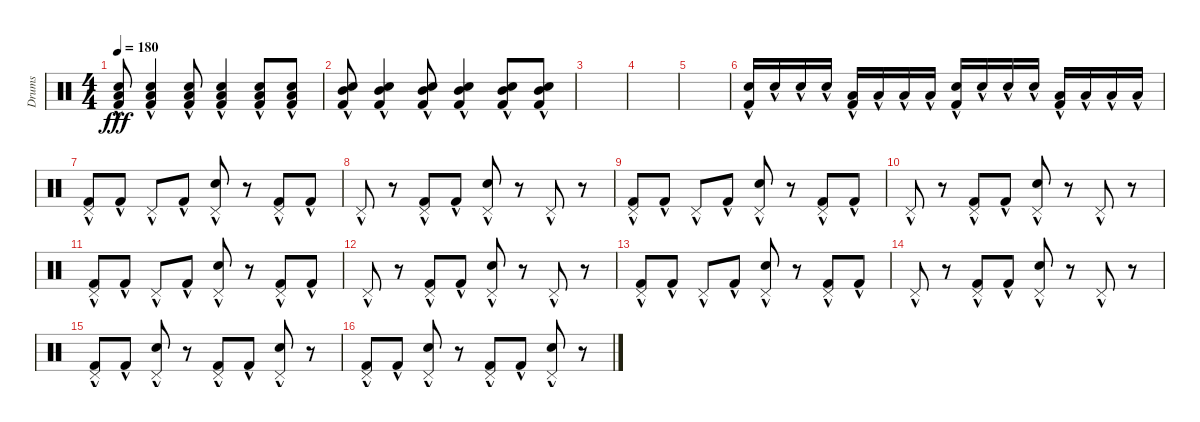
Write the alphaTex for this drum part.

\track ("Drums" "Drums") {instrument percussion}
\staff {score}
\articulation defaults
\ts (4 4)
\tempo 180
\clef neutral
\ks c
("Kick (hit) 2"{hac} "Snare (hit) 2"{hac} "Low Tom (hit)"{hac}).8{dy fff} ("Kick (hit) 2"{hac} "Snare (hit) 2"{hac} "Low Tom (hit)"{hac}).4 ("Kick (hit) 2"{hac} "Snare (hit) 2"{hac} "Low Tom (hit)"{hac}).8 ("Kick (hit) 2"{hac} "Snare (hit) 2"{hac} "Low Tom (hit)"{hac}).4 ("Kick (hit) 2"{hac} "Snare (hit) 2"{hac} "Low Tom (hit)"{hac}).8 ("Kick (hit) 2"{hac} "Snare (hit) 2"{hac} "Low Tom (hit)"{hac}).8 |
("Kick (hit) 2"{hac} "Snare (hit) 2"{hac} "Mid Tom (hit)"{hac}).8 ("Kick (hit) 2"{hac} "Snare (hit) 2"{hac} "Mid Tom (hit)"{hac}).4 ("Kick (hit) 2"{hac} "Snare (hit) 2"{hac} "Mid Tom (hit)"{hac}).8 ("Kick (hit) 2"{hac} "Snare (hit) 2"{hac} "Mid Tom (hit)"{hac}).4 ("Kick (hit) 2"{hac} "Snare (hit) 2"{hac} "Mid Tom (hit)"{hac}).8 ("Kick (hit) 2"{hac} "Snare (hit) 2"{hac} "Mid Tom (hit)"{hac}).8 |
|
|
|
("Snare (hit) 2"{hac} "Kick (hit) 2"{hac}).16 "Snare (hit) 2"{hac}.16 "Snare (hit) 2"{hac}.16 "Snare (hit) 2"{hac}.16 ("Low Tom (hit)"{hac} "Kick (hit) 2"{hac}).16 "Low Tom (hit)"{hac}.16 "Low Tom (hit)"{hac}.16 "Low Tom (hit)"{hac}.16 ("Snare (hit) 2"{hac} "Kick (hit) 2"{hac}).16 "Snare (hit) 2"{hac}.16 "Snare (hit) 2"{hac}.16 "Snare (hit) 2"{hac}.16 ("Low Floor Tom (hit)"{hac} "Kick (hit) 2"{hac}).16 "Low Floor Tom (hit)"{hac}.16 "Low Floor Tom (hit)"{hac}.16 "Low Floor Tom (hit)"{hac}.16 |
("Pedal Hi-Hat (hit)"{hac} "Kick (hit) 2"{hac}).8 "Kick (hit) 2"{hac}.8 "Pedal Hi-Hat (hit)"{hac}.8 "Kick (hit) 2"{hac}.8 ("Pedal Hi-Hat (hit)"{hac} "Snare (hit) 2"{hac}).8 r.8 ("Pedal Hi-Hat (hit)"{hac} "Kick (hit) 2"{hac}).8 "Kick (hit) 2"{hac}.8 |
"Pedal Hi-Hat (hit)"{hac}.8 r.8 ("Pedal Hi-Hat (hit)"{hac} "Kick (hit) 2"{hac}).8 "Kick (hit) 2"{hac}.8 ("Pedal Hi-Hat (hit)"{hac} "Snare (hit) 2"{hac}).8 r.8 "Pedal Hi-Hat (hit)"{hac}.8 r.8 |
("Pedal Hi-Hat (hit)"{hac} "Kick (hit) 2"{hac}).8 "Kick (hit) 2"{hac}.8 "Pedal Hi-Hat (hit)"{hac}.8 "Kick (hit) 2"{hac}.8 ("Pedal Hi-Hat (hit)"{hac} "Snare (hit) 2"{hac}).8 r.8 ("Pedal Hi-Hat (hit)"{hac} "Kick (hit) 2"{hac}).8 "Kick (hit) 2"{hac}.8 |
"Pedal Hi-Hat (hit)"{hac}.8 r.8 ("Pedal Hi-Hat (hit)"{hac} "Kick (hit) 2"{hac}).8 "Kick (hit) 2"{hac}.8 ("Pedal Hi-Hat (hit)"{hac} "Snare (hit) 2"{hac}).8 r.8 "Pedal Hi-Hat (hit)"{hac}.8 r.8 |
("Pedal Hi-Hat (hit)"{hac} "Kick (hit) 2"{hac}).8 "Kick (hit) 2"{hac}.8 "Pedal Hi-Hat (hit)"{hac}.8 "Kick (hit) 2"{hac}.8 ("Pedal Hi-Hat (hit)"{hac} "Snare (hit) 2"{hac}).8 r.8 ("Pedal Hi-Hat (hit)"{hac} "Kick (hit) 2"{hac}).8 "Kick (hit) 2"{hac}.8 |
"Pedal Hi-Hat (hit)"{hac}.8 r.8 ("Pedal Hi-Hat (hit)"{hac} "Kick (hit) 2"{hac}).8 "Kick (hit) 2"{hac}.8 ("Pedal Hi-Hat (hit)"{hac} "Snare (hit) 2"{hac}).8 r.8 "Pedal Hi-Hat (hit)"{hac}.8 r.8 |
("Pedal Hi-Hat (hit)"{hac} "Kick (hit) 2"{hac}).8 "Kick (hit) 2"{hac}.8 "Pedal Hi-Hat (hit)"{hac}.8 "Kick (hit) 2"{hac}.8 ("Pedal Hi-Hat (hit)"{hac} "Snare (hit) 2"{hac}).8 r.8 ("Pedal Hi-Hat (hit)"{hac} "Kick (hit) 2"{hac}).8 "Kick (hit) 2"{hac}.8 |
"Pedal Hi-Hat (hit)"{hac}.8 r.8 ("Pedal Hi-Hat (hit)"{hac} "Kick (hit) 2"{hac}).8 "Kick (hit) 2"{hac}.8 ("Pedal Hi-Hat (hit)"{hac} "Snare (hit) 2"{hac}).8 r.8 "Pedal Hi-Hat (hit)"{hac}.8 r.8 |
("Pedal Hi-Hat (hit)"{hac} "Kick (hit) 2"{hac}).8 "Kick (hit) 2"{hac}.8 ("Pedal Hi-Hat (hit)"{hac} "Snare (hit) 2"{hac}).8 r.8 ("Pedal Hi-Hat (hit)"{hac} "Kick (hit) 2"{hac}).8 "Kick (hit) 2"{hac}.8 ("Pedal Hi-Hat (hit)"{hac} "Snare (hit) 2"{hac}).8 r.8 |
("Pedal Hi-Hat (hit)"{hac} "Kick (hit) 2"{hac}).8 "Kick (hit) 2"{hac}.8 ("Pedal Hi-Hat (hit)"{hac} "Snare (hit) 2"{hac}).8 r.8 ("Pedal Hi-Hat (hit)"{hac} "Kick (hit) 2"{hac}).8 "Kick (hit) 2"{hac}.8 ("Pedal Hi-Hat (hit)"{hac} "Snare (hit) 2"{hac}).8 r.8
